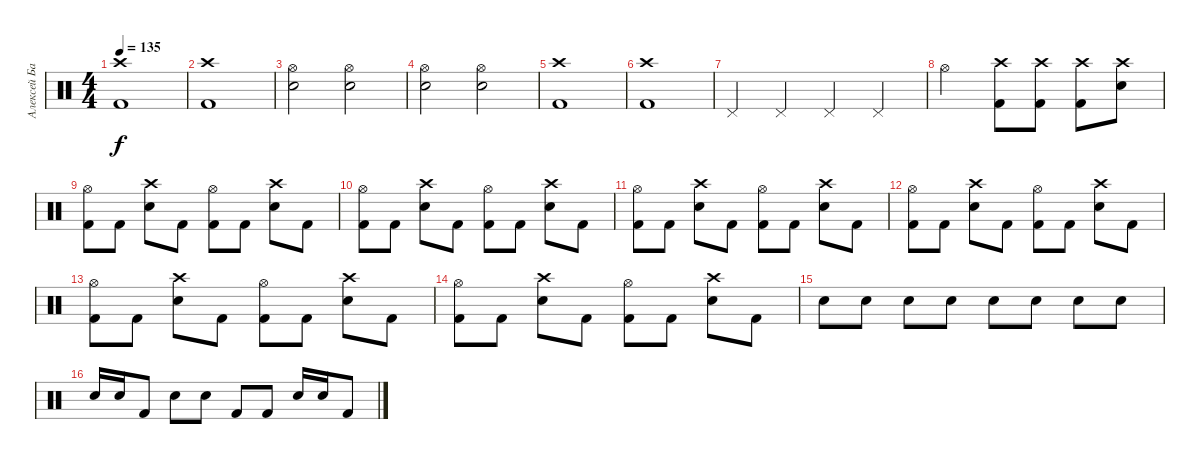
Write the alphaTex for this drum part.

\track ("Алексей Барзилович" "Алексей Ба") {instrument percussion}
\staff {score}
\articulation defaults
\ts (4 4)
\tempo 135
\clef neutral
\ks c
("Crash high (hit)" "Kick (hit) 2").1{dy f} |
("Kick (hit) 2" "Crash high (hit)").1 |
("Electric Snare (hit)" "Hi-Hat (open)").2 ("Electric Snare (hit)" "Hi-Hat (open)").2 |
("Electric Snare (hit)" "Hi-Hat (open)").2 ("Electric Snare (hit)" "Hi-Hat (open)").2 |
("Crash high (hit)" "Kick (hit) 2").1 |
("Kick (hit) 2" "Crash high (hit)").1 |
"Pedal Hi-Hat (hit)".4 "Pedal Hi-Hat (hit)".4 "Pedal Hi-Hat (hit)".4 "Pedal Hi-Hat (hit)".4 |
"Hi-Hat (open)".2 ("Crash high (hit)" "Kick (hit) 2").8 ("Crash high (hit)" "Kick (hit) 2").8 ("Crash high (hit)" "Kick (hit) 2").8 ("Crash high (hit)" "Electric Snare (hit)").8 |
("Kick (hit) 2" "Hi-Hat (open)").8 "Kick (hit) 2".8 ("Electric Snare (hit)" "Crash high (hit)").8 "Kick (hit) 2".8 ("Kick (hit) 2" "Hi-Hat (open)").8 "Kick (hit) 2".8 ("Electric Snare (hit)" "Crash high (hit)").8 "Kick (hit) 2".8 |
("Kick (hit) 2" "Hi-Hat (open)").8 "Kick (hit) 2".8 ("Electric Snare (hit)" "Crash high (hit)").8 "Kick (hit) 2".8 ("Kick (hit) 2" "Hi-Hat (open)").8 "Kick (hit) 2".8 ("Electric Snare (hit)" "Crash high (hit)").8 "Kick (hit) 2".8 |
("Kick (hit) 2" "Hi-Hat (open)").8 "Kick (hit) 2".8 ("Electric Snare (hit)" "Crash high (hit)").8 "Kick (hit) 2".8 ("Kick (hit) 2" "Hi-Hat (open)").8 "Kick (hit) 2".8 ("Electric Snare (hit)" "Crash high (hit)").8 "Kick (hit) 2".8 |
("Kick (hit) 2" "Hi-Hat (open)").8 "Kick (hit) 2".8 ("Electric Snare (hit)" "Crash high (hit)").8 "Kick (hit) 2".8 ("Kick (hit) 2" "Hi-Hat (open)").8 "Kick (hit) 2".8 ("Electric Snare (hit)" "Crash high (hit)").8 "Kick (hit) 2".8 |
("Kick (hit) 2" "Hi-Hat (open)").8 "Kick (hit) 2".8 ("Electric Snare (hit)" "Crash high (hit)").8 "Kick (hit) 2".8 ("Kick (hit) 2" "Hi-Hat (open)").8 "Kick (hit) 2".8 ("Electric Snare (hit)" "Crash high (hit)").8 "Kick (hit) 2".8 |
("Kick (hit) 2" "Hi-Hat (open)").8 "Kick (hit) 2".8 ("Electric Snare (hit)" "Crash high (hit)").8 "Kick (hit) 2".8 ("Kick (hit) 2" "Hi-Hat (open)").8 "Kick (hit) 2".8 ("Electric Snare (hit)" "Crash high (hit)").8 "Kick (hit) 2".8 |
"Electric Snare (hit)".8 "Electric Snare (hit)".8 "Electric Snare (hit)".8 "Electric Snare (hit)".8 "Electric Snare (hit)".8 "Electric Snare (hit)".8 "Electric Snare (hit)".8 "Electric Snare (hit)".8 |
"Electric Snare (hit)".16 "Electric Snare (hit)".16 "Kick (hit) 2".8 "Electric Snare (hit)".8 "Electric Snare (hit)".8 "Kick (hit) 2".8 "Kick (hit) 2".8 "Electric Snare (hit)".16 "Electric Snare (hit)".16 "Kick (hit) 2".8
